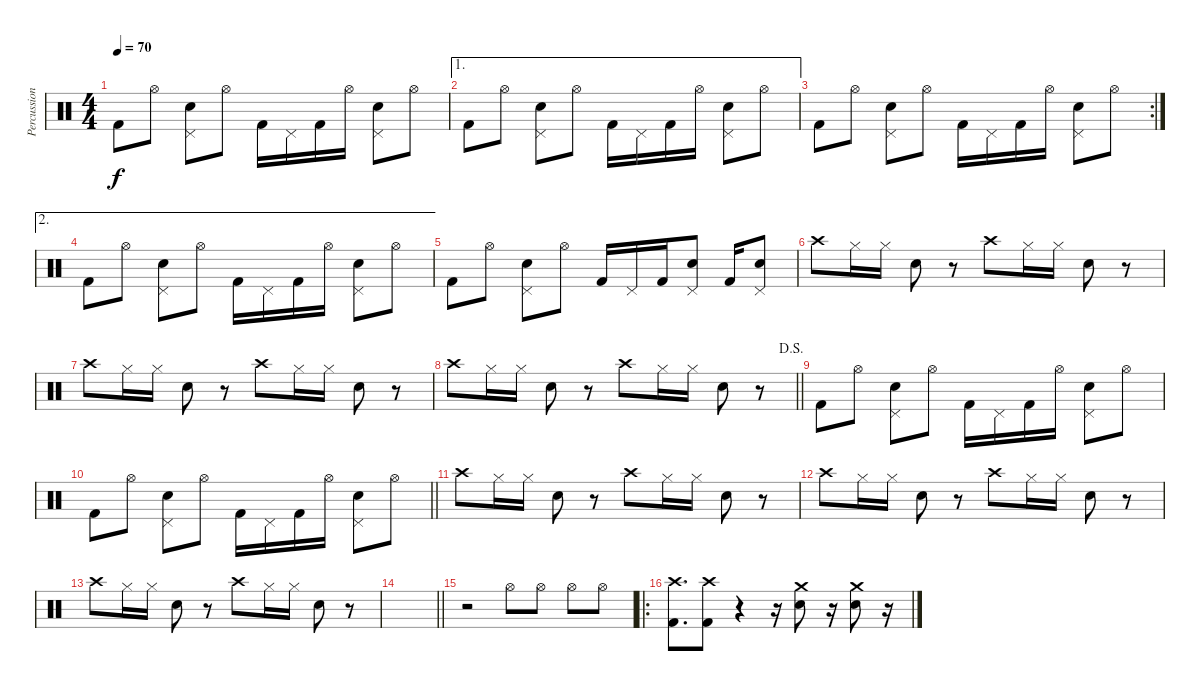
\track ("Percussion" "Percussion") {instrument percussion}
\staff {score}
\articulation defaults
\ts (4 4)
\tempo 70
\clef neutral
\ks c "Kick (hit) 2".8{dy f} "Hi-Hat (open)".8
("Pedal Hi-Hat (hit)" "Snare (hit) 2").8 "Hi-Hat (open)".8 "Kick (hit) 2".16 "Pedal Hi-Hat (hit)".16 "Kick (hit) 2".16 "Hi-Hat (open)".16 ("Pedal Hi-Hat (hit)" "Snare (hit) 2").8 "Hi-Hat (open)".8 |
\ae 1 "Kick (hit) 2".8 "Hi-Hat (open)".8
("Pedal Hi-Hat (hit)" "Snare (hit) 2").8 "Hi-Hat (open)".8 "Kick (hit) 2".16 "Pedal Hi-Hat (hit)".16 "Kick (hit) 2".16 "Hi-Hat (open)".16 ("Pedal Hi-Hat (hit)" "Snare (hit) 2").8 "Hi-Hat (open)".8 |
\rc 2 "Kick (hit) 2".8 "Hi-Hat (open)".8
("Pedal Hi-Hat (hit)" "Snare (hit) 2").8 "Hi-Hat (open)".8 "Kick (hit) 2".16 "Pedal Hi-Hat (hit)".16 "Kick (hit) 2".16 "Hi-Hat (open)".16 ("Pedal Hi-Hat (hit)" "Snare (hit) 2").8 "Hi-Hat (open)".8 |
\ae 2 "Kick (hit) 2".8 "Hi-Hat (open)".8
("Pedal Hi-Hat (hit)" "Snare (hit) 2").8 "Hi-Hat (open)".8 "Kick (hit) 2".16 "Pedal Hi-Hat (hit)".16 "Kick (hit) 2".16 "Hi-Hat (open)".16 ("Pedal Hi-Hat (hit)" "Snare (hit) 2").8 "Hi-Hat (open)".8 |
"Kick (hit) 2".8 "Hi-Hat (open)".8 ("Pedal Hi-Hat (hit)" "Snare (hit) 2").8 "Hi-Hat (open)".8 "Kick (hit) 2".16 "Pedal Hi-Hat (hit)".16 "Kick (hit) 2".16 ("Pedal Hi-Hat (hit)" "Snare (hit) 2").8 "Kick (hit) 2".16 ("Pedal Hi-Hat (hit)" "Snare (hit) 2").8 |
"Crash high (hit)".8 "Hi-Hat (closed)".16 "Hi-Hat (closed)".16 "Snare (hit) 2".8 r.8 "Crash high (hit)".8 "Hi-Hat (closed)".16 "Hi-Hat (closed)".16 "Snare (hit) 2".8 r.8 |
"Crash high (hit)".8 "Hi-Hat (closed)".16 "Hi-Hat (closed)".16 "Snare (hit) 2".8 r.8 "Crash high (hit)".8 "Hi-Hat (closed)".16 "Hi-Hat (closed)".16 "Snare (hit) 2".8 r.8 |
\jump dalsegno
\barLineRight lightlight "Crash high (hit)".8 "Hi-Hat (closed)".16 "Hi-Hat (closed)".16 "Snare (hit) 2".8
r.8 "Crash high (hit)".8 "Hi-Hat (closed)".16 "Hi-Hat (closed)".16 "Snare (hit) 2".8 r.8 |
"Kick (hit) 2".8 "Hi-Hat (open)".8 ("Pedal Hi-Hat (hit)" "Snare (hit) 2").8 "Hi-Hat (open)".8 "Kick (hit) 2".16 "Pedal Hi-Hat (hit)".16 "Kick (hit) 2".16 "Hi-Hat (open)".16 ("Pedal Hi-Hat (hit)" "Snare (hit) 2").8 "Hi-Hat (open)".8 |
\barLineRight lightlight "Kick (hit) 2".8 "Hi-Hat (open)".8
("Pedal Hi-Hat (hit)" "Snare (hit) 2").8 "Hi-Hat (open)".8 "Kick (hit) 2".16 "Pedal Hi-Hat (hit)".16 "Kick (hit) 2".16 "Hi-Hat (open)".16 ("Pedal Hi-Hat (hit)" "Snare (hit) 2").8 "Hi-Hat (open)".8 |
"Crash high (hit)".8 "Hi-Hat (closed)".16 "Hi-Hat (closed)".16 "Snare (hit) 2".8 r.8 "Crash high (hit)".8 "Hi-Hat (closed)".16 "Hi-Hat (closed)".16 "Snare (hit) 2".8 r.8 |
"Crash high (hit)".8 "Hi-Hat (closed)".16 "Hi-Hat (closed)".16 "Snare (hit) 2".8 r.8 "Crash high (hit)".8 "Hi-Hat (closed)".16 "Hi-Hat (closed)".16 "Snare (hit) 2".8 r.8 |
"Crash high (hit)".8 "Hi-Hat (closed)".16 "Hi-Hat (closed)".16 "Snare (hit) 2".8 r.8 "Crash high (hit)".8 "Hi-Hat (closed)".16 "Hi-Hat (closed)".16 "Snare (hit) 2".8 r.8 |
\barLineRight lightlight
|
r.2 "Hi-Hat (open)".8 "Hi-Hat (open)".8 "Hi-Hat (open)".8 "Hi-Hat (open)".8 |
\ro
("Kick (hit) 2" "Crash high (hit)").8{d} ("Kick (hit) 2" "Crash high (hit)").8 r.4 r.16 ("Snare (hit) 2" "Crash medium (hit)").8 r.16 ("Snare (hit) 2" "Crash medium (hit)").8 r.16
